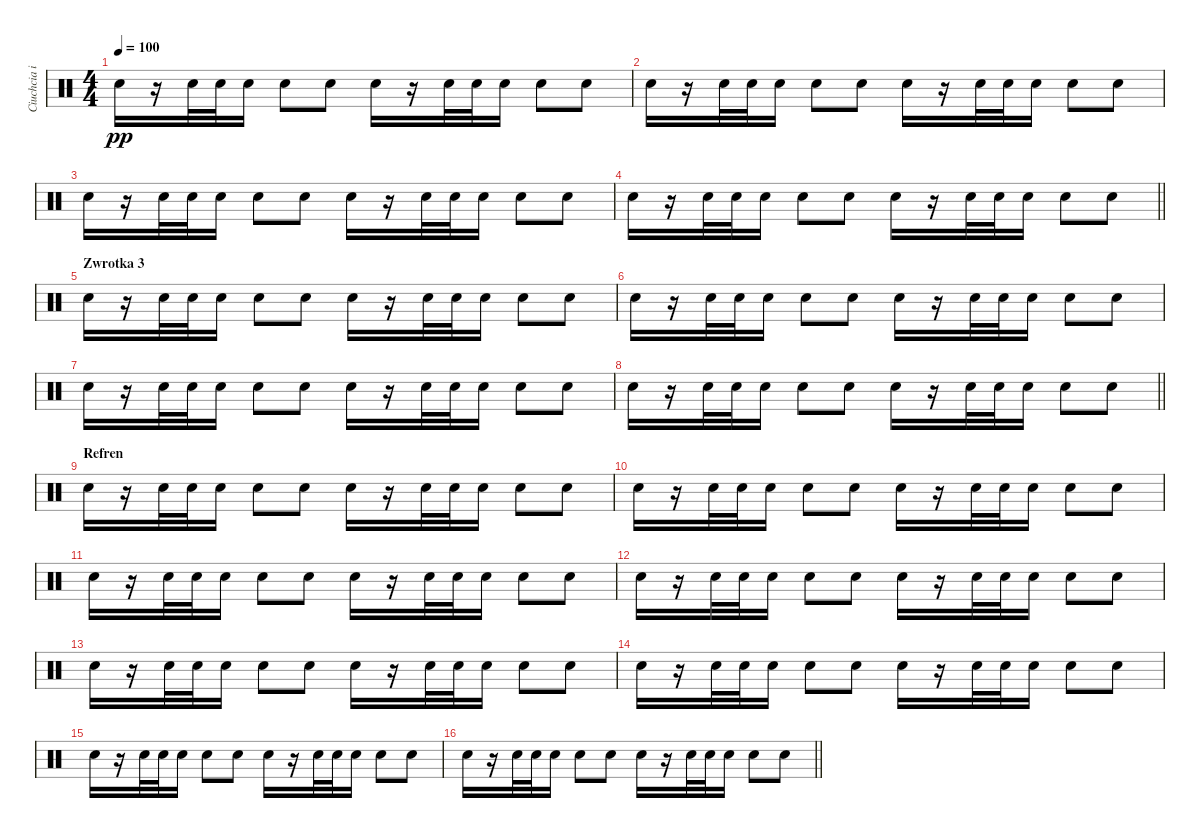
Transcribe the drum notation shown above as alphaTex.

\track ("Ciuchcia i Werbel" "Ciuchcia i") {instrument percussion}
\staff {score}
\articulation defaults
\ts (4 4)
\tempo 100
\clef neutral
\ks c "Snare (hit) 2".16{dy pp}
r.16 "Snare (hit) 2".32 "Snare (hit) 2".32 "Snare (hit) 2".16 "Snare (hit) 2".8 "Snare (hit) 2".8 "Snare (hit) 2".16 r.16 "Snare (hit) 2".32 "Snare (hit) 2".32 "Snare (hit) 2".16 "Snare (hit) 2".8 "Snare (hit) 2".8 |
"Snare (hit) 2".16 r.16 "Snare (hit) 2".32 "Snare (hit) 2".32 "Snare (hit) 2".16 "Snare (hit) 2".8 "Snare (hit) 2".8 "Snare (hit) 2".16 r.16 "Snare (hit) 2".32 "Snare (hit) 2".32 "Snare (hit) 2".16 "Snare (hit) 2".8 "Snare (hit) 2".8 |
"Snare (hit) 2".16 r.16 "Snare (hit) 2".32 "Snare (hit) 2".32 "Snare (hit) 2".16 "Snare (hit) 2".8 "Snare (hit) 2".8 "Snare (hit) 2".16 r.16 "Snare (hit) 2".32 "Snare (hit) 2".32 "Snare (hit) 2".16 "Snare (hit) 2".8 "Snare (hit) 2".8 |
\barLineRight lightlight "Snare (hit) 2".16
r.16 "Snare (hit) 2".32 "Snare (hit) 2".32 "Snare (hit) 2".16 "Snare (hit) 2".8 "Snare (hit) 2".8 "Snare (hit) 2".16 r.16 "Snare (hit) 2".32 "Snare (hit) 2".32 "Snare (hit) 2".16 "Snare (hit) 2".8 "Snare (hit) 2".8 |
\section ("" "Zwrotka 3")
"Snare (hit) 2".16 r.16 "Snare (hit) 2".32 "Snare (hit) 2".32 "Snare (hit) 2".16 "Snare (hit) 2".8 "Snare (hit) 2".8 "Snare (hit) 2".16 r.16 "Snare (hit) 2".32 "Snare (hit) 2".32 "Snare (hit) 2".16 "Snare (hit) 2".8 "Snare (hit) 2".8 |
"Snare (hit) 2".16 r.16 "Snare (hit) 2".32 "Snare (hit) 2".32 "Snare (hit) 2".16 "Snare (hit) 2".8 "Snare (hit) 2".8 "Snare (hit) 2".16 r.16 "Snare (hit) 2".32 "Snare (hit) 2".32 "Snare (hit) 2".16 "Snare (hit) 2".8 "Snare (hit) 2".8 |
"Snare (hit) 2".16 r.16 "Snare (hit) 2".32 "Snare (hit) 2".32 "Snare (hit) 2".16 "Snare (hit) 2".8 "Snare (hit) 2".8 "Snare (hit) 2".16 r.16 "Snare (hit) 2".32 "Snare (hit) 2".32 "Snare (hit) 2".16 "Snare (hit) 2".8 "Snare (hit) 2".8 |
\barLineRight lightlight "Snare (hit) 2".16
r.16 "Snare (hit) 2".32 "Snare (hit) 2".32 "Snare (hit) 2".16 "Snare (hit) 2".8 "Snare (hit) 2".8 "Snare (hit) 2".16 r.16 "Snare (hit) 2".32 "Snare (hit) 2".32 "Snare (hit) 2".16 "Snare (hit) 2".8 "Snare (hit) 2".8 |
\section ("" "Refren")
"Snare (hit) 2".16 r.16 "Snare (hit) 2".32 "Snare (hit) 2".32 "Snare (hit) 2".16 "Snare (hit) 2".8 "Snare (hit) 2".8 "Snare (hit) 2".16 r.16 "Snare (hit) 2".32 "Snare (hit) 2".32 "Snare (hit) 2".16 "Snare (hit) 2".8 "Snare (hit) 2".8 |
"Snare (hit) 2".16 r.16 "Snare (hit) 2".32 "Snare (hit) 2".32 "Snare (hit) 2".16 "Snare (hit) 2".8 "Snare (hit) 2".8 "Snare (hit) 2".16 r.16 "Snare (hit) 2".32 "Snare (hit) 2".32 "Snare (hit) 2".16 "Snare (hit) 2".8 "Snare (hit) 2".8 |
"Snare (hit) 2".16 r.16 "Snare (hit) 2".32 "Snare (hit) 2".32 "Snare (hit) 2".16 "Snare (hit) 2".8 "Snare (hit) 2".8 "Snare (hit) 2".16 r.16 "Snare (hit) 2".32 "Snare (hit) 2".32 "Snare (hit) 2".16 "Snare (hit) 2".8 "Snare (hit) 2".8 |
"Snare (hit) 2".16 r.16 "Snare (hit) 2".32 "Snare (hit) 2".32 "Snare (hit) 2".16 "Snare (hit) 2".8 "Snare (hit) 2".8 "Snare (hit) 2".16 r.16 "Snare (hit) 2".32 "Snare (hit) 2".32 "Snare (hit) 2".16 "Snare (hit) 2".8 "Snare (hit) 2".8 |
"Snare (hit) 2".16 r.16 "Snare (hit) 2".32 "Snare (hit) 2".32 "Snare (hit) 2".16 "Snare (hit) 2".8 "Snare (hit) 2".8 "Snare (hit) 2".16 r.16 "Snare (hit) 2".32 "Snare (hit) 2".32 "Snare (hit) 2".16 "Snare (hit) 2".8 "Snare (hit) 2".8 |
"Snare (hit) 2".16 r.16 "Snare (hit) 2".32 "Snare (hit) 2".32 "Snare (hit) 2".16 "Snare (hit) 2".8 "Snare (hit) 2".8 "Snare (hit) 2".16 r.16 "Snare (hit) 2".32 "Snare (hit) 2".32 "Snare (hit) 2".16 "Snare (hit) 2".8 "Snare (hit) 2".8 |
"Snare (hit) 2".16 r.16 "Snare (hit) 2".32 "Snare (hit) 2".32 "Snare (hit) 2".16 "Snare (hit) 2".8 "Snare (hit) 2".8 "Snare (hit) 2".16 r.16 "Snare (hit) 2".32 "Snare (hit) 2".32 "Snare (hit) 2".16 "Snare (hit) 2".8 "Snare (hit) 2".8 |
\barLineRight lightlight "Snare (hit) 2".16
r.16 "Snare (hit) 2".32 "Snare (hit) 2".32 "Snare (hit) 2".16 "Snare (hit) 2".8 "Snare (hit) 2".8 "Snare (hit) 2".16 r.16 "Snare (hit) 2".32 "Snare (hit) 2".32 "Snare (hit) 2".16 "Snare (hit) 2".8 "Snare (hit) 2".8
